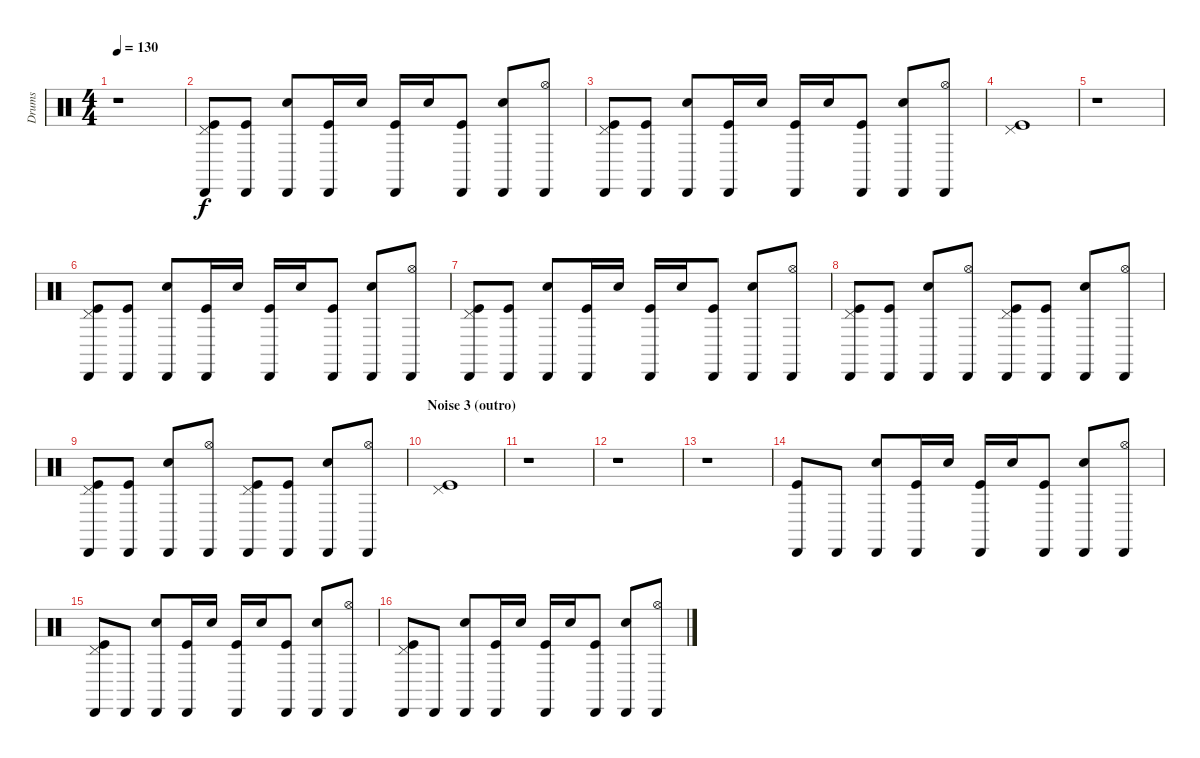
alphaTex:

\track ("Drums" "Drums") {instrument percussion}
\staff {score}
\articulation defaults
\ts (4 4)
\tempo 130
\clef neutral
\ks c
r.1{dy f} |
("Cabasa (hit)" "Pedal Hi-Hat (hit)" "Kick (hit)").8 ("Cabasa (hit)" "Kick (hit)").8 ("Cabasa (hit)" "Electric Snare (hit)").8 ("Cabasa (hit)" "Kick (hit)").16 "Electric Snare (hit)".16 ("Cabasa (hit)" "Kick (hit)").16 "Electric Snare (hit)".16 ("Cabasa (hit)" "Kick (hit)").8 ("Cabasa (hit)" "Electric Snare (hit)").8 ("Cabasa (hit)" "Hi-Hat (open)").8 |
("Cabasa (hit)" "Pedal Hi-Hat (hit)" "Kick (hit)").8 ("Cabasa (hit)" "Kick (hit)").8 ("Cabasa (hit)" "Electric Snare (hit)").8 ("Cabasa (hit)" "Kick (hit)").16 "Electric Snare (hit)".16 ("Cabasa (hit)" "Kick (hit)").16 "Electric Snare (hit)".16 ("Cabasa (hit)" "Kick (hit)").8 ("Cabasa (hit)" "Electric Snare (hit)").8 ("Cabasa (hit)" "Hi-Hat (open)").8 |
("Pedal Hi-Hat (hit)" "Kick (hit)").1 |
r.1 |
("Cabasa (hit)" "Pedal Hi-Hat (hit)" "Kick (hit)").8 ("Cabasa (hit)" "Kick (hit)").8 ("Cabasa (hit)" "Electric Snare (hit)").8 ("Cabasa (hit)" "Kick (hit)").16 "Electric Snare (hit)".16 ("Cabasa (hit)" "Kick (hit)").16 "Electric Snare (hit)".16 ("Cabasa (hit)" "Kick (hit)").8 ("Cabasa (hit)" "Electric Snare (hit)").8 ("Cabasa (hit)" "Hi-Hat (open)").8 |
("Cabasa (hit)" "Pedal Hi-Hat (hit)" "Kick (hit)").8 ("Cabasa (hit)" "Kick (hit)").8 ("Cabasa (hit)" "Electric Snare (hit)").8 ("Cabasa (hit)" "Kick (hit)").16 "Electric Snare (hit)".16 ("Cabasa (hit)" "Kick (hit)").16 "Electric Snare (hit)".16 ("Cabasa (hit)" "Kick (hit)").8 ("Cabasa (hit)" "Electric Snare (hit)").8 ("Cabasa (hit)" "Hi-Hat (open)").8 |
("Cabasa (hit)" "Pedal Hi-Hat (hit)" "Kick (hit)").8 ("Cabasa (hit)" "Kick (hit)").8 ("Cabasa (hit)" "Electric Snare (hit)").8 ("Cabasa (hit)" "Hi-Hat (open)").8 ("Cabasa (hit)" "Pedal Hi-Hat (hit)" "Kick (hit)").8 ("Cabasa (hit)" "Kick (hit)").8 ("Cabasa (hit)" "Electric Snare (hit)").8 ("Cabasa (hit)" "Hi-Hat (open)").8 |
("Cabasa (hit)" "Pedal Hi-Hat (hit)" "Kick (hit)").8 ("Cabasa (hit)" "Kick (hit)").8 ("Cabasa (hit)" "Electric Snare (hit)").8 ("Cabasa (hit)" "Hi-Hat (open)").8 ("Cabasa (hit)" "Pedal Hi-Hat (hit)" "Kick (hit)").8 ("Cabasa (hit)" "Kick (hit)").8 ("Cabasa (hit)" "Electric Snare (hit)").8 ("Cabasa (hit)" "Hi-Hat (open)").8 |
\section ("" "Noise 3 (outro)")
("Pedal Hi-Hat (hit)" "Kick (hit)").1 |
r.1 |
r.1 |
r.1 |
("Cabasa (hit)" "Kick (hit)").8 "Cabasa (hit)".8 ("Cabasa (hit)" "Electric Snare (hit)").8 ("Cabasa (hit)" "Kick (hit)").16 "Electric Snare (hit)".16 ("Cabasa (hit)" "Kick (hit)").16 "Electric Snare (hit)".16 ("Cabasa (hit)" "Kick (hit)").8 ("Cabasa (hit)" "Electric Snare (hit)").8 ("Cabasa (hit)" "Hi-Hat (open)").8 |
("Cabasa (hit)" "Pedal Hi-Hat (hit)" "Kick (hit)").8 "Cabasa (hit)".8 ("Cabasa (hit)" "Electric Snare (hit)").8 ("Cabasa (hit)" "Kick (hit)").16 "Electric Snare (hit)".16 ("Cabasa (hit)" "Kick (hit)").16 "Electric Snare (hit)".16 ("Cabasa (hit)" "Kick (hit)").8 ("Cabasa (hit)" "Electric Snare (hit)").8 ("Cabasa (hit)" "Hi-Hat (open)").8 |
("Cabasa (hit)" "Pedal Hi-Hat (hit)" "Kick (hit)").8 "Cabasa (hit)".8 ("Cabasa (hit)" "Electric Snare (hit)").8 ("Cabasa (hit)" "Kick (hit)").16 "Electric Snare (hit)".16 ("Cabasa (hit)" "Kick (hit)").16 "Electric Snare (hit)".16 ("Cabasa (hit)" "Kick (hit)").8 ("Cabasa (hit)" "Electric Snare (hit)").8 ("Cabasa (hit)" "Hi-Hat (open)").8
